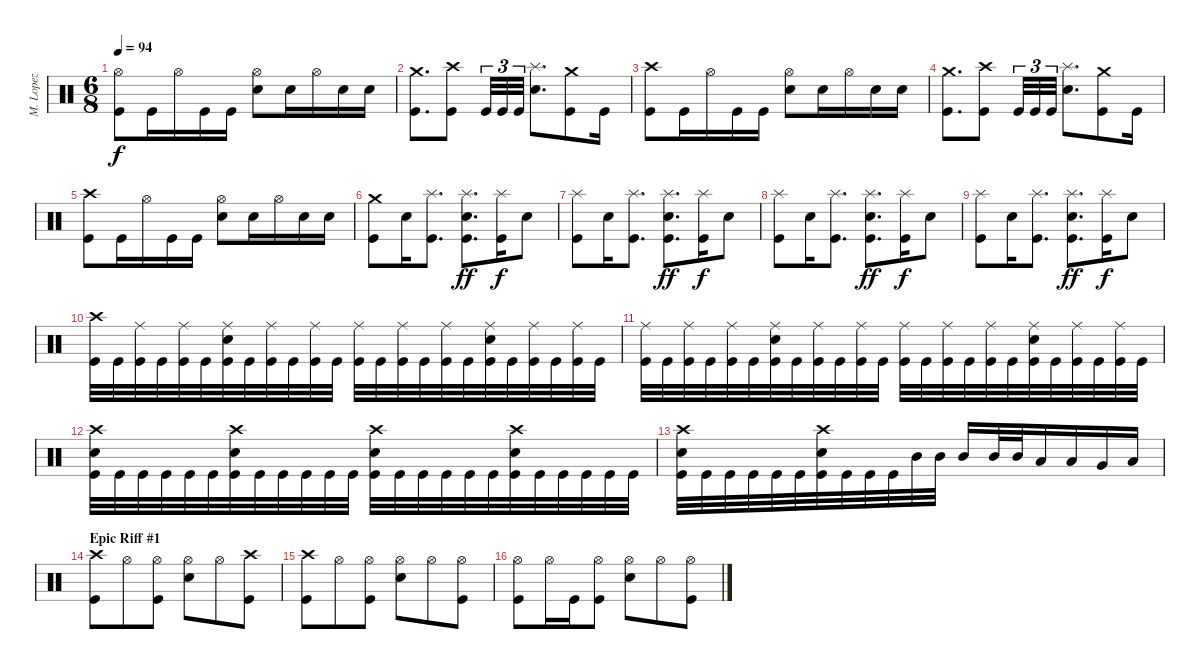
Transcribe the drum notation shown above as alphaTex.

\track ("M. Lopez" "M. Lopez") {instrument percussion}
\staff {score}
\articulation defaults
\ts (6 8)
\tempo 94
\clef neutral
\ks c
("Hi-Hat (open)" "Kick (hit)").8{dy f} "Kick (hit)".16 "Hi-Hat (open)".16 "Kick (hit)".16 "Kick (hit)".16 ("Hi-Hat (open)" "Electric Snare (hit)").8 "Electric Snare (hit)".16 "Hi-Hat (open)".16 "Electric Snare (hit)".16 "Electric Snare (hit)".16 |
("Crash medium (hit)" "Kick (hit)").8{d} ("Crash high (hit)" "Kick (hit)").8 "Kick (hit)".32{tu (3 2)} "Kick (hit)".32{tu (3 2)} "Kick (hit)".32{tu (3 2)} ("Splash (hit)" "Electric Snare (hit)").8{d} ("Crash medium (hit)" "Kick (hit)").8 "Kick (hit)".16 |
("Crash high (hit)" "Kick (hit)").8 "Kick (hit)".16 "Hi-Hat (open)".16 "Kick (hit)".16 "Kick (hit)".16 ("Hi-Hat (open)" "Electric Snare (hit)").8 "Electric Snare (hit)".16 "Hi-Hat (open)".16 "Electric Snare (hit)".16 "Electric Snare (hit)".16 |
("Crash medium (hit)" "Kick (hit)").8{d} ("Crash high (hit)" "Kick (hit)").8 "Kick (hit)".32{tu (3 2)} "Kick (hit)".32{tu (3 2)} "Kick (hit)".32{tu (3 2)} ("Splash (hit)" "Electric Snare (hit)").8{d} ("Crash medium (hit)" "Kick (hit)").8 "Kick (hit)".16 |
("Crash high (hit)" "Kick (hit)").8 "Kick (hit)".16 "Hi-Hat (open)".16 "Kick (hit)".16 "Kick (hit)".16 ("Hi-Hat (open)" "Electric Snare (hit)").8 "Electric Snare (hit)".16 "Hi-Hat (open)".16 "Electric Snare (hit)".16 "Electric Snare (hit)".16 |
("Crash medium (hit)" "Kick (hit)").8 "Electric Snare (hit)".16 ("Splash (hit)" "Kick (hit)").8{d} ("Splash (hit)" "Electric Snare (hit)" "Kick (hit)").8{d dy ff} ("Splash (hit)" "Kick (hit)").16{dy f} "Electric Snare (hit)".8 |
("Splash (hit)" "Kick (hit)").8 "Electric Snare (hit)".16 ("Splash (hit)" "Kick (hit)").8{d} ("Splash (hit)" "Electric Snare (hit)" "Kick (hit)").8{d dy ff} ("Splash (hit)" "Kick (hit)").16{dy f} "Electric Snare (hit)".8 |
("Splash (hit)" "Kick (hit)").8 "Electric Snare (hit)".16 ("Splash (hit)" "Kick (hit)").8{d} ("Splash (hit)" "Electric Snare (hit)" "Kick (hit)").8{d dy ff} ("Splash (hit)" "Kick (hit)").16{dy f} "Electric Snare (hit)".8 |
("Splash (hit)" "Kick (hit)").8 "Electric Snare (hit)".16 ("Splash (hit)" "Kick (hit)").8{d} ("Splash (hit)" "Electric Snare (hit)" "Kick (hit)").8{d dy ff} ("Splash (hit)" "Kick (hit)").16{dy f} "Electric Snare (hit)".8 |
("Crash high (hit)" "Kick (hit)").32 "Kick (hit)".32 ("Ride (middle)" "Kick (hit)").32 "Kick (hit)".32 ("Ride (middle)" "Kick (hit)").32 "Kick (hit)".32 ("Ride (middle)" "Electric Snare (hit)" "Kick (hit)").32 "Kick (hit)".32 ("Ride (middle)" "Kick (hit)").32 "Kick (hit)".32 ("Ride (middle)" "Kick (hit)").32 "Kick (hit)".32 ("Ride (middle)" "Kick (hit)").32 "Kick (hit)".32 ("Ride (middle)" "Kick (hit)").32 "Kick (hit)".32 ("Ride (middle)" "Kick (hit)").32 "Kick (hit)".32 ("Ride (middle)" "Electric Snare (hit)" "Kick (hit)").32 "Kick (hit)".32 ("Ride (middle)" "Kick (hit)").32 "Kick (hit)".32 ("Ride (middle)" "Kick (hit)").32 "Kick (hit)".32 |
("Ride (middle)" "Kick (hit)").32 "Kick (hit)".32 ("Ride (middle)" "Kick (hit)").32 "Kick (hit)".32 ("Ride (middle)" "Kick (hit)").32 "Kick (hit)".32 ("Ride (middle)" "Electric Snare (hit)" "Kick (hit)").32 "Kick (hit)".32 ("Ride (middle)" "Kick (hit)").32 "Kick (hit)".32 ("Ride (middle)" "Kick (hit)").32 "Kick (hit)".32 ("Ride (middle)" "Kick (hit)").32 "Kick (hit)".32 ("Ride (middle)" "Kick (hit)").32 "Kick (hit)".32 ("Ride (middle)" "Kick (hit)").32 "Kick (hit)".32 ("Ride (middle)" "Electric Snare (hit)" "Kick (hit)").32 "Kick (hit)".32 ("Ride (middle)" "Kick (hit)").32 "Kick (hit)".32 ("Ride (middle)" "Kick (hit)").32 "Kick (hit)".32 |
("Crash high (hit)" "Electric Snare (hit)" "Kick (hit)").32 "Kick (hit)".32 "Kick (hit)".32 "Kick (hit)".32 "Kick (hit)".32 "Kick (hit)".32 ("Crash high (hit)" "Electric Snare (hit)" "Kick (hit)").32 "Kick (hit)".32 "Kick (hit)".32 "Kick (hit)".32 "Kick (hit)".32 "Kick (hit)".32 ("Crash high (hit)" "Electric Snare (hit)" "Kick (hit)").32 "Kick (hit)".32 "Kick (hit)".32 "Kick (hit)".32 "Kick (hit)".32 "Kick (hit)".32 ("Crash high (hit)" "Electric Snare (hit)" "Kick (hit)").32 "Kick (hit)".32 "Kick (hit)".32 "Kick (hit)".32 "Kick (hit)".32 "Kick (hit)".32 |
("Crash high (hit)" "Electric Snare (hit)" "Kick (hit)").32 "Kick (hit)".32 "Kick (hit)".32 "Kick (hit)".32 "Kick (hit)".32 "Kick (hit)".32 ("Crash high (hit)" "Electric Snare (hit)" "Kick (hit)").32 "Kick (hit)".32 "Kick (hit)".32 "Kick (hit)".32 "Mid Tom (hit)".32 "Mid Tom (hit)".32 "Mid Tom (hit)".16 "Mid Tom (hit)".32 "Mid Tom (hit)".32 "Low Tom (hit)".16 "Low Tom (hit)".16 "Very Low Tom (hit)".16 "Low Floor Tom (hit)".16 |
\section ("" "Epic Riff #1")
("Crash high (hit)" "Kick (hit)").8 "Hi-Hat (open)".8 ("Hi-Hat (open)" "Kick (hit)").8 ("Hi-Hat (open)" "Electric Snare (hit)").8 "Hi-Hat (open)".8 ("Crash high (hit)" "Kick (hit)").8 |
("Crash high (hit)" "Kick (hit)").8 "Hi-Hat (open)".8 ("Hi-Hat (open)" "Kick (hit)").8 ("Hi-Hat (open)" "Electric Snare (hit)").8 "Hi-Hat (open)".8 ("Hi-Hat (open)" "Kick (hit)").8 |
("Hi-Hat (open)" "Kick (hit)").8 "Hi-Hat (open)".16 "Kick (hit)".16 ("Hi-Hat (open)" "Kick (hit)").8 ("Hi-Hat (open)" "Electric Snare (hit)").8 "Hi-Hat (open)".8 ("Hi-Hat (open)" "Kick (hit)").8
